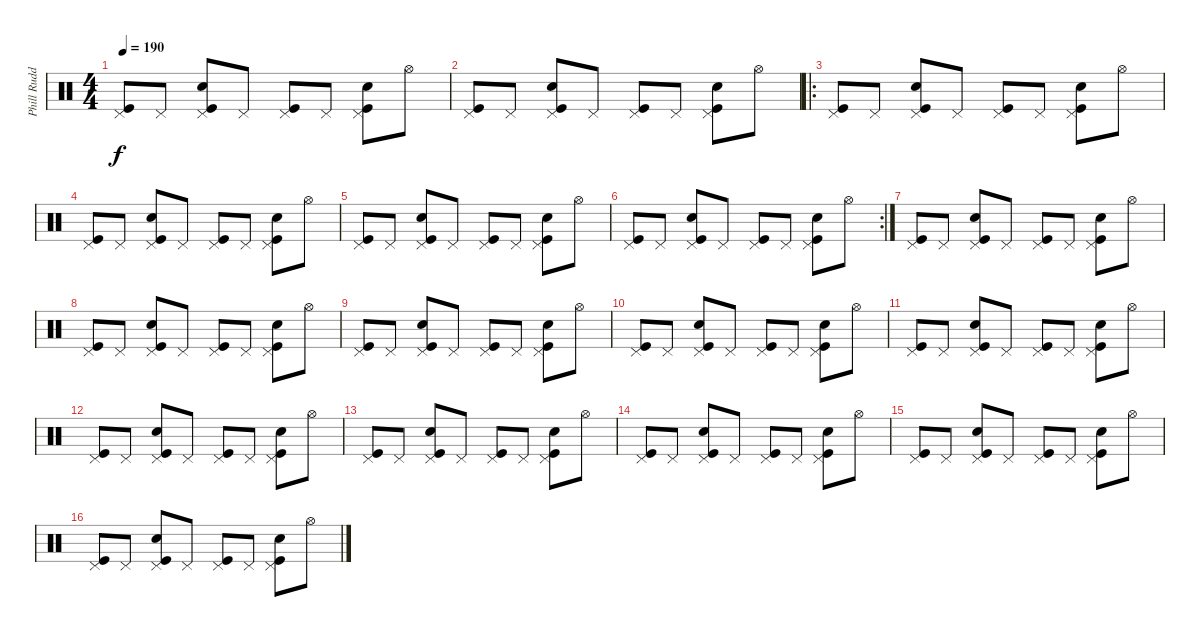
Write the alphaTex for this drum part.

\track ("Phill Rudd (Drums)" "Phill Rudd") {instrument percussion}
\staff {score}
\articulation defaults
\ts (4 4)
\tempo 190
\clef neutral
\ks c
("Pedal Hi-Hat (hit)" "Kick (hit)").8{dy f} "Pedal Hi-Hat (hit)".8 ("Pedal Hi-Hat (hit)" "Snare (hit) 2" "Kick (hit)").8 "Pedal Hi-Hat (hit)".8 ("Pedal Hi-Hat (hit)" "Kick (hit)").8 "Pedal Hi-Hat (hit)".8 ("Pedal Hi-Hat (hit)" "Snare (hit) 2" "Kick (hit)").8 "Hi-Hat (open)".8 |
("Pedal Hi-Hat (hit)" "Kick (hit)").8 "Pedal Hi-Hat (hit)".8 ("Pedal Hi-Hat (hit)" "Snare (hit) 2" "Kick (hit)").8 "Pedal Hi-Hat (hit)".8 ("Pedal Hi-Hat (hit)" "Kick (hit)").8 "Pedal Hi-Hat (hit)".8 ("Pedal Hi-Hat (hit)" "Snare (hit) 2" "Kick (hit)").8 "Hi-Hat (open)".8 |
\ro
("Pedal Hi-Hat (hit)" "Kick (hit)").8 "Pedal Hi-Hat (hit)".8 ("Pedal Hi-Hat (hit)" "Snare (hit) 2" "Kick (hit)").8 "Pedal Hi-Hat (hit)".8 ("Pedal Hi-Hat (hit)" "Kick (hit)").8 "Pedal Hi-Hat (hit)".8 ("Pedal Hi-Hat (hit)" "Snare (hit) 2" "Kick (hit)").8 "Hi-Hat (open)".8 |
("Pedal Hi-Hat (hit)" "Kick (hit)").8 "Pedal Hi-Hat (hit)".8 ("Pedal Hi-Hat (hit)" "Snare (hit) 2" "Kick (hit)").8 "Pedal Hi-Hat (hit)".8 ("Pedal Hi-Hat (hit)" "Kick (hit)").8 "Pedal Hi-Hat (hit)".8 ("Pedal Hi-Hat (hit)" "Snare (hit) 2" "Kick (hit)").8 "Hi-Hat (open)".8 |
("Pedal Hi-Hat (hit)" "Kick (hit)").8 "Pedal Hi-Hat (hit)".8 ("Pedal Hi-Hat (hit)" "Snare (hit) 2" "Kick (hit)").8 "Pedal Hi-Hat (hit)".8 ("Pedal Hi-Hat (hit)" "Kick (hit)").8 "Pedal Hi-Hat (hit)".8 ("Pedal Hi-Hat (hit)" "Snare (hit) 2" "Kick (hit)").8 "Hi-Hat (open)".8 |
\rc 2
("Pedal Hi-Hat (hit)" "Kick (hit)").8 "Pedal Hi-Hat (hit)".8 ("Pedal Hi-Hat (hit)" "Snare (hit) 2" "Kick (hit)").8 "Pedal Hi-Hat (hit)".8 ("Pedal Hi-Hat (hit)" "Kick (hit)").8 "Pedal Hi-Hat (hit)".8 ("Pedal Hi-Hat (hit)" "Snare (hit) 2" "Kick (hit)").8 "Hi-Hat (open)".8 |
("Pedal Hi-Hat (hit)" "Kick (hit)").8 "Pedal Hi-Hat (hit)".8 ("Pedal Hi-Hat (hit)" "Snare (hit) 2" "Kick (hit)").8 "Pedal Hi-Hat (hit)".8 ("Pedal Hi-Hat (hit)" "Kick (hit)").8 "Pedal Hi-Hat (hit)".8 ("Pedal Hi-Hat (hit)" "Snare (hit) 2" "Kick (hit)").8 "Hi-Hat (open)".8 |
("Pedal Hi-Hat (hit)" "Kick (hit)").8 "Pedal Hi-Hat (hit)".8 ("Pedal Hi-Hat (hit)" "Snare (hit) 2" "Kick (hit)").8 "Pedal Hi-Hat (hit)".8 ("Pedal Hi-Hat (hit)" "Kick (hit)").8 "Pedal Hi-Hat (hit)".8 ("Pedal Hi-Hat (hit)" "Snare (hit) 2" "Kick (hit)").8 "Hi-Hat (open)".8 |
("Pedal Hi-Hat (hit)" "Kick (hit)").8 "Pedal Hi-Hat (hit)".8 ("Pedal Hi-Hat (hit)" "Snare (hit) 2" "Kick (hit)").8 "Pedal Hi-Hat (hit)".8 ("Pedal Hi-Hat (hit)" "Kick (hit)").8 "Pedal Hi-Hat (hit)".8 ("Pedal Hi-Hat (hit)" "Snare (hit) 2" "Kick (hit)").8 "Hi-Hat (open)".8 |
("Pedal Hi-Hat (hit)" "Kick (hit)").8 "Pedal Hi-Hat (hit)".8 ("Pedal Hi-Hat (hit)" "Snare (hit) 2" "Kick (hit)").8 "Pedal Hi-Hat (hit)".8 ("Pedal Hi-Hat (hit)" "Kick (hit)").8 "Pedal Hi-Hat (hit)".8 ("Pedal Hi-Hat (hit)" "Snare (hit) 2" "Kick (hit)").8 "Hi-Hat (open)".8 |
("Pedal Hi-Hat (hit)" "Kick (hit)").8 "Pedal Hi-Hat (hit)".8 ("Pedal Hi-Hat (hit)" "Snare (hit) 2" "Kick (hit)").8 "Pedal Hi-Hat (hit)".8 ("Pedal Hi-Hat (hit)" "Kick (hit)").8 "Pedal Hi-Hat (hit)".8 ("Pedal Hi-Hat (hit)" "Snare (hit) 2" "Kick (hit)").8 "Hi-Hat (open)".8 |
("Pedal Hi-Hat (hit)" "Kick (hit)").8 "Pedal Hi-Hat (hit)".8 ("Pedal Hi-Hat (hit)" "Snare (hit) 2" "Kick (hit)").8 "Pedal Hi-Hat (hit)".8 ("Pedal Hi-Hat (hit)" "Kick (hit)").8 "Pedal Hi-Hat (hit)".8 ("Pedal Hi-Hat (hit)" "Snare (hit) 2" "Kick (hit)").8 "Hi-Hat (open)".8 |
("Pedal Hi-Hat (hit)" "Kick (hit)").8 "Pedal Hi-Hat (hit)".8 ("Pedal Hi-Hat (hit)" "Snare (hit) 2" "Kick (hit)").8 "Pedal Hi-Hat (hit)".8 ("Pedal Hi-Hat (hit)" "Kick (hit)").8 "Pedal Hi-Hat (hit)".8 ("Pedal Hi-Hat (hit)" "Snare (hit) 2" "Kick (hit)").8 "Hi-Hat (open)".8 |
("Pedal Hi-Hat (hit)" "Kick (hit)").8 "Pedal Hi-Hat (hit)".8 ("Pedal Hi-Hat (hit)" "Snare (hit) 2" "Kick (hit)").8 "Pedal Hi-Hat (hit)".8 ("Pedal Hi-Hat (hit)" "Kick (hit)").8 "Pedal Hi-Hat (hit)".8 ("Pedal Hi-Hat (hit)" "Snare (hit) 2" "Kick (hit)").8 "Hi-Hat (open)".8 |
("Pedal Hi-Hat (hit)" "Kick (hit)").8 "Pedal Hi-Hat (hit)".8 ("Pedal Hi-Hat (hit)" "Snare (hit) 2" "Kick (hit)").8 "Pedal Hi-Hat (hit)".8 ("Pedal Hi-Hat (hit)" "Kick (hit)").8 "Pedal Hi-Hat (hit)".8 ("Pedal Hi-Hat (hit)" "Snare (hit) 2" "Kick (hit)").8 "Hi-Hat (open)".8 |
("Pedal Hi-Hat (hit)" "Kick (hit)").8 "Pedal Hi-Hat (hit)".8 ("Pedal Hi-Hat (hit)" "Snare (hit) 2" "Kick (hit)").8 "Pedal Hi-Hat (hit)".8 ("Pedal Hi-Hat (hit)" "Kick (hit)").8 "Pedal Hi-Hat (hit)".8 ("Pedal Hi-Hat (hit)" "Snare (hit) 2" "Kick (hit)").8 "Hi-Hat (open)".8
